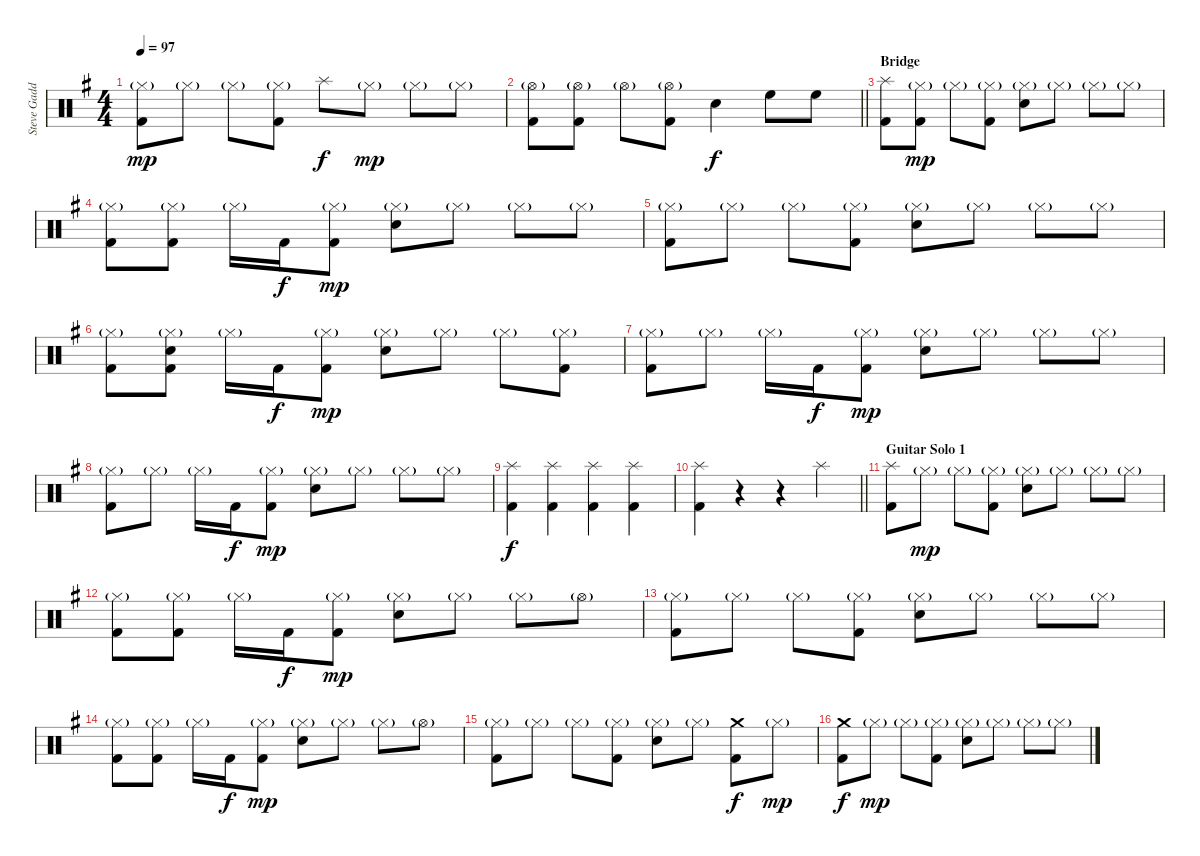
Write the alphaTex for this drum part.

\track ("Steve Gadd" "Steve Gadd") {instrument percussion}
\staff {score}
\articulation defaults
\ts (4 4)
\tempo 97
\clef neutral
\ks g
("Hi-Hat (closed)"{g} "Kick (hit) 2").8{dy mp} "Hi-Hat (closed)"{g}.8 "Hi-Hat (closed)"{g}.8 ("Hi-Hat (closed)"{g} "Kick (hit) 2").8 "Splash (hit)".8{dy f} "Hi-Hat (closed)"{g}.8{dy mp} "Hi-Hat (closed)"{g}.8 "Hi-Hat (closed)"{g}.8 |
\barLineRight lightlight
("Hi-Hat (open)"{g} "Kick (hit) 2").8 ("Hi-Hat (open)"{g} "Kick (hit) 2").8 "Hi-Hat (open)"{g}.8 ("Hi-Hat (open)"{g} "Kick (hit) 2").8 "Snare (hit) 2".4{dy f} "High Floor Tom (hit)".8 "High Floor Tom (hit)".8 |
\section ("" "Bridge")
("Splash (hit)" "Kick (hit) 2").8 ("Hi-Hat (closed)"{g} "Kick (hit) 2").8{dy mp} "Hi-Hat (closed)"{g}.8 ("Hi-Hat (closed)"{g} "Kick (hit) 2").8 ("Hi-Hat (closed)"{g} "Snare (hit) 2").8 "Hi-Hat (closed)"{g}.8 "Hi-Hat (closed)"{g}.8 "Hi-Hat (closed)"{g}.8 |
("Hi-Hat (closed)"{g} "Kick (hit) 2").8 ("Hi-Hat (closed)"{g} "Kick (hit) 2").8 "Hi-Hat (closed)"{g}.16 "Kick (hit) 2".16{dy f} ("Hi-Hat (closed)"{g} "Kick (hit) 2").8{dy mp} ("Hi-Hat (closed)"{g} "Snare (hit) 2").8 "Hi-Hat (closed)"{g}.8 "Hi-Hat (closed)"{g}.8 "Hi-Hat (closed)"{g}.8 |
("Hi-Hat (closed)"{g} "Kick (hit) 2").8 "Hi-Hat (closed)"{g}.8 "Hi-Hat (closed)"{g}.8 ("Hi-Hat (closed)"{g} "Kick (hit) 2").8 ("Hi-Hat (closed)"{g} "Snare (hit) 2").8 "Hi-Hat (closed)"{g}.8 "Hi-Hat (closed)"{g}.8 "Hi-Hat (closed)"{g}.8 |
("Hi-Hat (closed)"{g} "Kick (hit) 2").8 ("Hi-Hat (closed)"{g} "Kick (hit) 2" "Snare (hit) 2").8 "Hi-Hat (closed)"{g}.16 "Kick (hit) 2".16{dy f} ("Hi-Hat (closed)"{g} "Kick (hit) 2").8{dy mp} ("Hi-Hat (closed)"{g} "Snare (hit) 2").8 "Hi-Hat (closed)"{g}.8 "Hi-Hat (closed)"{g}.8 ("Hi-Hat (closed)"{g} "Kick (hit) 2").8 |
("Hi-Hat (closed)"{g} "Kick (hit) 2").8 "Hi-Hat (closed)"{g}.8 "Hi-Hat (closed)"{g}.16 "Kick (hit) 2".16{dy f} ("Hi-Hat (closed)"{g} "Kick (hit) 2").8{dy mp} ("Hi-Hat (closed)"{g} "Snare (hit) 2").8 "Hi-Hat (closed)"{g}.8 "Hi-Hat (closed)"{g}.8 "Hi-Hat (closed)"{g}.8 |
("Hi-Hat (closed)"{g} "Kick (hit) 2").8 "Hi-Hat (closed)"{g}.8 "Hi-Hat (closed)"{g}.16 "Kick (hit) 2".16{dy f} ("Hi-Hat (closed)"{g} "Kick (hit) 2").8{dy mp} ("Hi-Hat (closed)"{g} "Snare (hit) 2").8 "Hi-Hat (closed)"{g}.8 "Hi-Hat (closed)"{g}.8 "Hi-Hat (closed)"{g}.8 |
("Splash (hit)" "Kick (hit) 2").4{dy f} ("Splash (hit)" "Kick (hit) 2").4 ("Splash (hit)" "Kick (hit) 2").4 ("Splash (hit)" "Kick (hit) 2").4 |
\barLineRight lightlight
("Splash (hit)" "Kick (hit) 2").4 r.4 r.4 "Splash (hit)".4 |
\section ("" "Guitar Solo 1")
("Splash (hit)" "Kick (hit) 2").8 "Hi-Hat (closed)"{g}.8{dy mp} "Hi-Hat (closed)"{g}.8 ("Hi-Hat (closed)"{g} "Kick (hit) 2").8 ("Hi-Hat (closed)"{g} "Snare (hit) 2").8 "Hi-Hat (closed)"{g}.8 "Hi-Hat (closed)"{g}.8 "Hi-Hat (closed)"{g}.8 |
("Hi-Hat (closed)"{g} "Kick (hit) 2").8 ("Hi-Hat (closed)"{g} "Kick (hit) 2").8 "Hi-Hat (closed)"{g}.16 "Kick (hit) 2".16{dy f} ("Hi-Hat (closed)"{g} "Kick (hit) 2").8{dy mp} ("Hi-Hat (closed)"{g} "Snare (hit) 2").8 "Hi-Hat (closed)"{g}.8 "Hi-Hat (closed)"{g}.8 "Hi-Hat (open)"{g}.8 |
("Hi-Hat (closed)"{g} "Kick (hit) 2").8 "Hi-Hat (closed)"{g}.8 "Hi-Hat (closed)"{g}.8 ("Hi-Hat (closed)"{g} "Kick (hit) 2").8 ("Hi-Hat (closed)"{g} "Snare (hit) 2").8 "Hi-Hat (closed)"{g}.8 "Hi-Hat (closed)"{g}.8 "Hi-Hat (closed)"{g}.8 |
("Hi-Hat (closed)"{g} "Kick (hit) 2").8 ("Hi-Hat (closed)"{g} "Kick (hit) 2").8 "Hi-Hat (closed)"{g}.16 "Kick (hit) 2".16{dy f} ("Hi-Hat (closed)"{g} "Kick (hit) 2").8{dy mp} ("Hi-Hat (closed)"{g} "Snare (hit) 2").8 "Hi-Hat (closed)"{g}.8 "Hi-Hat (closed)"{g}.8 "Hi-Hat (open)"{g}.8 |
("Hi-Hat (closed)"{g} "Kick (hit) 2").8 "Hi-Hat (closed)"{g}.8 "Hi-Hat (closed)"{g}.8 ("Hi-Hat (closed)"{g} "Kick (hit) 2").8 ("Hi-Hat (closed)"{g} "Snare (hit) 2").8 "Hi-Hat (closed)"{g}.8 ("Crash medium (hit)" "Kick (hit) 2").8{dy f} "Hi-Hat (closed)"{g}.8{dy mp} |
("Crash medium (hit)" "Kick (hit) 2").8{dy f} "Hi-Hat (closed)"{g}.8{dy mp} "Hi-Hat (closed)"{g}.8 ("Hi-Hat (closed)"{g} "Kick (hit) 2").8 ("Hi-Hat (closed)"{g} "Snare (hit) 2").8 "Hi-Hat (closed)"{g}.8 "Hi-Hat (closed)"{g}.8 "Hi-Hat (closed)"{g}.8
